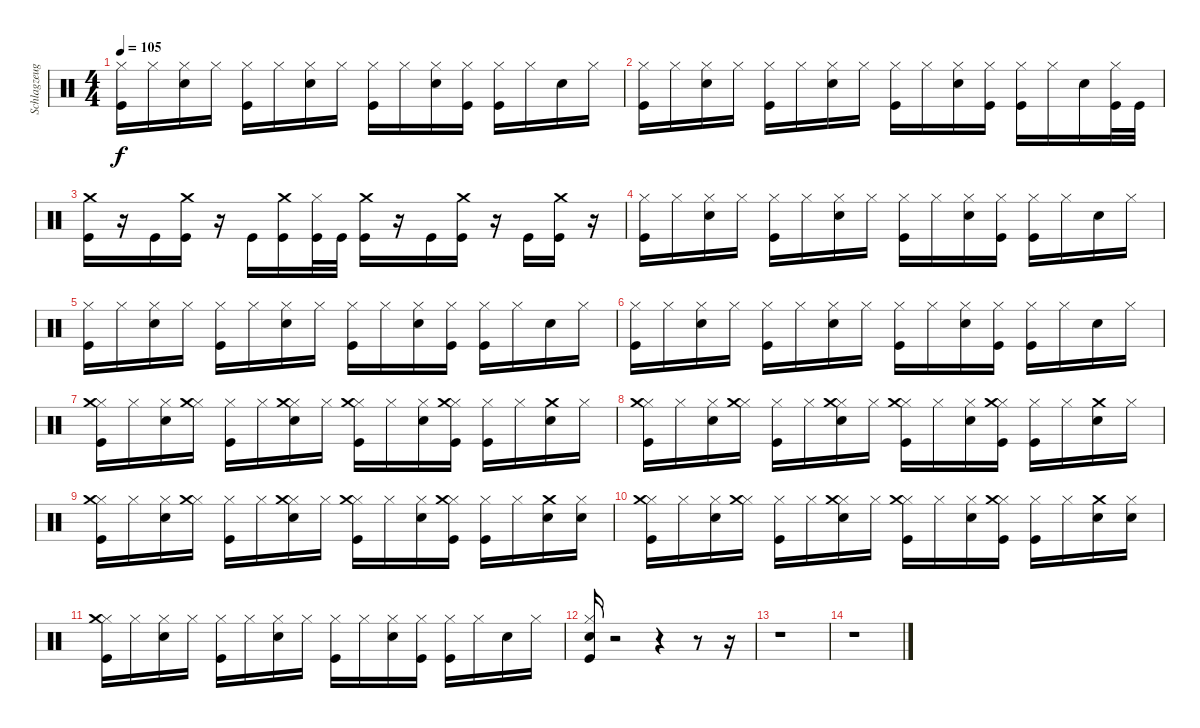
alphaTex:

\track ("Schlagzeug - Bela B." "Schlagzeug") {instrument percussion}
\staff {score}
\articulation defaults
\ts (4 4)
\tempo 105
\clef neutral
\ks c
("Kick (hit)" "Hi-Hat (closed)").16{dy f} "Hi-Hat (closed)".16 ("Hi-Hat (closed)" "Electric Snare (hit)").16 "Hi-Hat (closed)".16 ("Hi-Hat (closed)" "Kick (hit)").16 "Hi-Hat (closed)".16 ("Electric Snare (hit)" "Hi-Hat (closed)").16 "Hi-Hat (closed)".16 ("Kick (hit)" "Hi-Hat (closed)").16 "Hi-Hat (closed)".16 ("Electric Snare (hit)" "Hi-Hat (closed)").16 ("Hi-Hat (closed)" "Kick (hit)").16 ("Kick (hit)" "Hi-Hat (closed)").16 "Hi-Hat (closed)".16 "Electric Snare (hit)".16 "Hi-Hat (closed)".16 |
("Kick (hit)" "Hi-Hat (closed)").16 "Hi-Hat (closed)".16 ("Hi-Hat (closed)" "Electric Snare (hit)").16 "Hi-Hat (closed)".16 ("Hi-Hat (closed)" "Kick (hit)").16 "Hi-Hat (closed)".16 ("Electric Snare (hit)" "Hi-Hat (closed)").16 "Hi-Hat (closed)".16 ("Kick (hit)" "Hi-Hat (closed)").16 "Hi-Hat (closed)".16 ("Electric Snare (hit)" "Hi-Hat (closed)").16 ("Hi-Hat (closed)" "Kick (hit)").16 ("Kick (hit)" "Hi-Hat (closed)").16 "Hi-Hat (closed)".16 "Electric Snare (hit)".16 ("Hi-Hat (closed)" "Kick (hit)").32 "Kick (hit)".32 |
("Kick (hit)" "Crash medium (hit)").16 r.16 "Kick (hit)".16 ("Kick (hit)" "Crash medium (hit)").16 r.16 "Kick (hit)".16 ("Kick (hit)" "Crash medium (hit)").16 ("Hi-Hat (closed)" "Kick (hit)").32 "Kick (hit)".32 ("Kick (hit)" "Crash medium (hit)").16 r.16 "Kick (hit)".16 ("Kick (hit)" "Crash medium (hit)").16 r.16 "Kick (hit)".16 ("Kick (hit)" "Crash medium (hit)").16 r.16 |
("Kick (hit)" "Hi-Hat (closed)").16 "Hi-Hat (closed)".16 ("Hi-Hat (closed)" "Electric Snare (hit)").16 "Hi-Hat (closed)".16 ("Hi-Hat (closed)" "Kick (hit)").16 "Hi-Hat (closed)".16 ("Electric Snare (hit)" "Hi-Hat (closed)").16 "Hi-Hat (closed)".16 ("Kick (hit)" "Hi-Hat (closed)").16 "Hi-Hat (closed)".16 ("Electric Snare (hit)" "Hi-Hat (closed)").16 ("Hi-Hat (closed)" "Kick (hit)").16 ("Kick (hit)" "Hi-Hat (closed)").16 "Hi-Hat (closed)".16 "Electric Snare (hit)".16 "Hi-Hat (closed)".16 |
("Kick (hit)" "Hi-Hat (closed)").16 "Hi-Hat (closed)".16 ("Hi-Hat (closed)" "Electric Snare (hit)").16 "Hi-Hat (closed)".16 ("Hi-Hat (closed)" "Kick (hit)").16 "Hi-Hat (closed)".16 ("Electric Snare (hit)" "Hi-Hat (closed)").16 "Hi-Hat (closed)".16 ("Kick (hit)" "Hi-Hat (closed)").16 "Hi-Hat (closed)".16 ("Electric Snare (hit)" "Hi-Hat (closed)").16 ("Hi-Hat (closed)" "Kick (hit)").16 ("Kick (hit)" "Hi-Hat (closed)").16 "Hi-Hat (closed)".16 "Electric Snare (hit)".16 "Hi-Hat (closed)".16 |
("Kick (hit)" "Hi-Hat (closed)").16 "Hi-Hat (closed)".16 ("Hi-Hat (closed)" "Electric Snare (hit)").16 "Hi-Hat (closed)".16 ("Hi-Hat (closed)" "Kick (hit)").16 "Hi-Hat (closed)".16 ("Electric Snare (hit)" "Hi-Hat (closed)").16 "Hi-Hat (closed)".16 ("Kick (hit)" "Hi-Hat (closed)").16 "Hi-Hat (closed)".16 ("Electric Snare (hit)" "Hi-Hat (closed)").16 ("Hi-Hat (closed)" "Kick (hit)").16 ("Kick (hit)" "Hi-Hat (closed)").16 "Hi-Hat (closed)".16 "Electric Snare (hit)".16 "Hi-Hat (closed)".16 |
("Kick (hit)" "Hi-Hat (closed)" "Crash medium (hit)").16 "Hi-Hat (closed)".16 ("Hi-Hat (closed)" "Electric Snare (hit)").16 ("Hi-Hat (closed)" "Crash medium (hit)").16 ("Hi-Hat (closed)" "Kick (hit)").16 "Hi-Hat (closed)".16 ("Electric Snare (hit)" "Hi-Hat (closed)" "Crash medium (hit)").16 "Hi-Hat (closed)".16 ("Kick (hit)" "Hi-Hat (closed)" "Crash medium (hit)").16 "Hi-Hat (closed)".16 ("Electric Snare (hit)" "Hi-Hat (closed)").16 ("Hi-Hat (closed)" "Kick (hit)" "Crash medium (hit)").16 ("Kick (hit)" "Hi-Hat (closed)").16 "Hi-Hat (closed)".16 ("Electric Snare (hit)" "Crash medium (hit)").16 "Hi-Hat (closed)".16 |
("Kick (hit)" "Hi-Hat (closed)" "Crash medium (hit)").16 "Hi-Hat (closed)".16 ("Hi-Hat (closed)" "Electric Snare (hit)").16 ("Hi-Hat (closed)" "Crash medium (hit)").16 ("Hi-Hat (closed)" "Kick (hit)").16 "Hi-Hat (closed)".16 ("Electric Snare (hit)" "Hi-Hat (closed)" "Crash medium (hit)").16 "Hi-Hat (closed)".16 ("Kick (hit)" "Hi-Hat (closed)" "Crash medium (hit)").16 "Hi-Hat (closed)".16 ("Electric Snare (hit)" "Hi-Hat (closed)").16 ("Hi-Hat (closed)" "Kick (hit)" "Crash medium (hit)").16 ("Kick (hit)" "Hi-Hat (closed)").16 "Hi-Hat (closed)".16 ("Electric Snare (hit)" "Crash medium (hit)").16 "Hi-Hat (closed)".16 |
("Kick (hit)" "Hi-Hat (closed)" "Crash medium (hit)").16 "Hi-Hat (closed)".16 ("Hi-Hat (closed)" "Electric Snare (hit)").16 ("Hi-Hat (closed)" "Crash medium (hit)").16 ("Hi-Hat (closed)" "Kick (hit)").16 "Hi-Hat (closed)".16 ("Electric Snare (hit)" "Hi-Hat (closed)" "Crash medium (hit)").16 "Hi-Hat (closed)".16 ("Kick (hit)" "Hi-Hat (closed)" "Crash medium (hit)").16 "Hi-Hat (closed)".16 ("Electric Snare (hit)" "Hi-Hat (closed)").16 ("Hi-Hat (closed)" "Kick (hit)" "Crash medium (hit)").16 ("Kick (hit)" "Hi-Hat (closed)").16 "Hi-Hat (closed)".16 ("Electric Snare (hit)" "Crash medium (hit)").16 ("Hi-Hat (closed)" "Electric Snare (hit)").16 |
("Kick (hit)" "Hi-Hat (closed)" "Crash medium (hit)").16 "Hi-Hat (closed)".16 ("Hi-Hat (closed)" "Electric Snare (hit)").16 ("Hi-Hat (closed)" "Crash medium (hit)").16 ("Hi-Hat (closed)" "Kick (hit)").16 "Hi-Hat (closed)".16 ("Electric Snare (hit)" "Hi-Hat (closed)" "Crash medium (hit)").16 "Hi-Hat (closed)".16 ("Kick (hit)" "Hi-Hat (closed)" "Crash medium (hit)").16 "Hi-Hat (closed)".16 ("Electric Snare (hit)" "Hi-Hat (closed)").16 ("Hi-Hat (closed)" "Kick (hit)" "Crash medium (hit)").16 ("Kick (hit)" "Hi-Hat (closed)").16 "Hi-Hat (closed)".16 ("Electric Snare (hit)" "Crash medium (hit)").16 ("Hi-Hat (closed)" "Electric Snare (hit)").16 |
("Kick (hit)" "Hi-Hat (closed)" "Crash medium (hit)").16 "Hi-Hat (closed)".16 ("Hi-Hat (closed)" "Electric Snare (hit)").16 "Hi-Hat (closed)".16 ("Hi-Hat (closed)" "Kick (hit)").16 "Hi-Hat (closed)".16 ("Electric Snare (hit)" "Hi-Hat (closed)").16 "Hi-Hat (closed)".16 ("Kick (hit)" "Hi-Hat (closed)").16 "Hi-Hat (closed)".16 ("Electric Snare (hit)" "Hi-Hat (closed)").16 ("Hi-Hat (closed)" "Kick (hit)").16 ("Kick (hit)" "Hi-Hat (closed)").16 "Hi-Hat (closed)".16 "Electric Snare (hit)".16 "Hi-Hat (closed)".16 |
("Kick (hit)" "Electric Snare (hit)" "Hi-Hat (closed)").16 r.2 r.4 r.8 r.16 |
r.1 |
r.1
